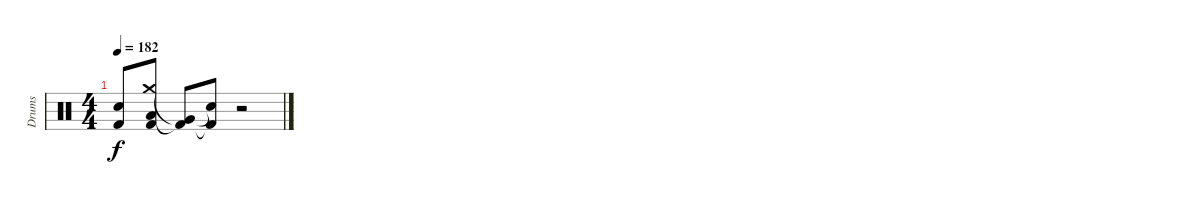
\track ("Drums" "Drums") {instrument percussion}
\staff {score}
\articulation defaults
\ts (4 4)
\tempo 182
\clef neutral
\ks c
("Snare (hit) 2" "Kick (hit) 2").8{dy f} ("Crash medium (hit)" "Low Tom (hit)" "Kick (hit) 2").8 ("Very Low Tom (hit)"{t} "Kick (hit) 2"{t}).8 ("Snare (hit) 2"{t} "Kick (hit) 2"{t}).8 r.2
